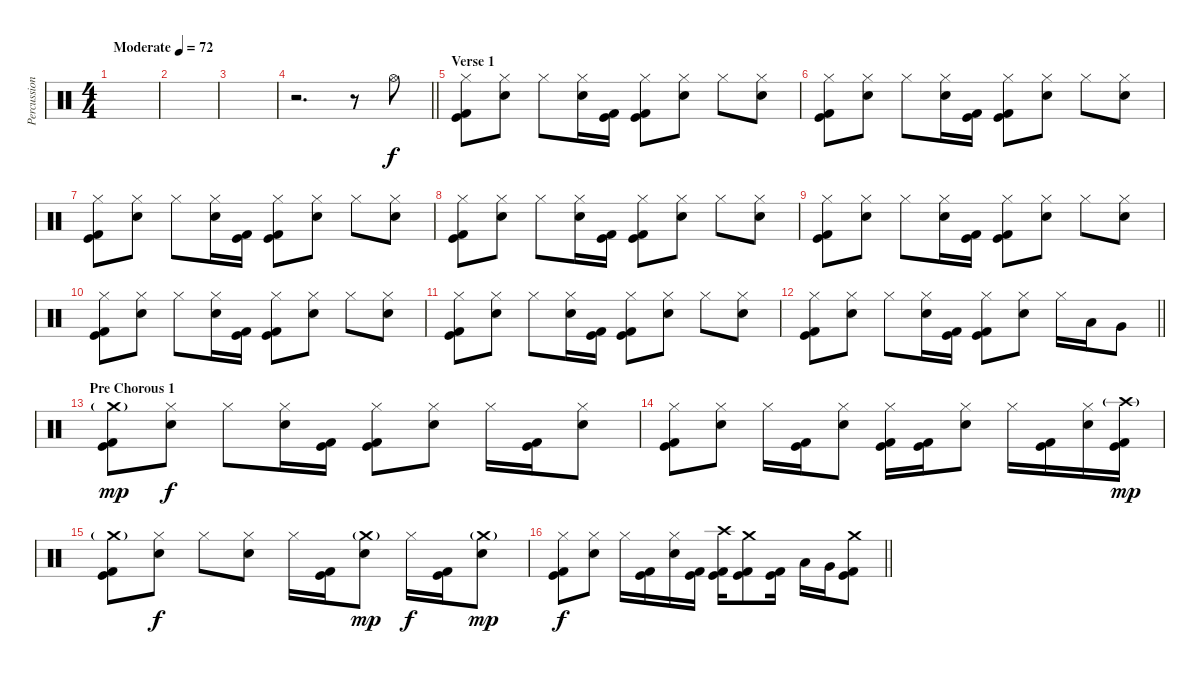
\track ("Percussion" "Percussion") {instrument percussion}
\staff {score}
\articulation defaults
\ts (4 4)
\tempo (72 "Moderate")
\clef neutral
\ks c
|
|
|
\barLineRight lightlight
r.2{d} r.8 "Hi-Hat (open)".8 |
\section ("" "Verse 1")
("Hi-Hat (closed)" "Kick (hit)" "Kick (hit) 2").8 ("Hi-Hat (closed)" "Electric Snare (hit)").8 "Hi-Hat (closed)".8 ("Hi-Hat (closed)" "Electric Snare (hit)").16 ("Kick (hit)" "Kick (hit) 2").16 ("Hi-Hat (closed)" "Kick (hit)" "Kick (hit) 2").8 ("Hi-Hat (closed)" "Electric Snare (hit)").8 "Hi-Hat (closed)".8 ("Hi-Hat (closed)" "Electric Snare (hit)").8 |
("Hi-Hat (closed)" "Kick (hit)" "Kick (hit) 2").8 ("Hi-Hat (closed)" "Electric Snare (hit)").8 "Hi-Hat (closed)".8 ("Hi-Hat (closed)" "Electric Snare (hit)").16 ("Kick (hit)" "Kick (hit) 2").16 ("Hi-Hat (closed)" "Kick (hit)" "Kick (hit) 2").8 ("Hi-Hat (closed)" "Electric Snare (hit)").8 "Hi-Hat (closed)".8 ("Hi-Hat (closed)" "Electric Snare (hit)").8 |
("Hi-Hat (closed)" "Kick (hit)" "Kick (hit) 2").8 ("Hi-Hat (closed)" "Electric Snare (hit)").8 "Hi-Hat (closed)".8 ("Hi-Hat (closed)" "Electric Snare (hit)").16 ("Kick (hit)" "Kick (hit) 2").16 ("Hi-Hat (closed)" "Kick (hit)" "Kick (hit) 2").8 ("Hi-Hat (closed)" "Electric Snare (hit)").8 "Hi-Hat (closed)".8 ("Hi-Hat (closed)" "Electric Snare (hit)").8 |
("Hi-Hat (closed)" "Kick (hit)" "Kick (hit) 2").8 ("Hi-Hat (closed)" "Electric Snare (hit)").8 "Hi-Hat (closed)".8 ("Hi-Hat (closed)" "Electric Snare (hit)").16 ("Kick (hit)" "Kick (hit) 2").16 ("Hi-Hat (closed)" "Kick (hit)" "Kick (hit) 2").8 ("Hi-Hat (closed)" "Electric Snare (hit)").8 "Hi-Hat (closed)".8 ("Hi-Hat (closed)" "Electric Snare (hit)").8 |
("Hi-Hat (closed)" "Kick (hit)" "Kick (hit) 2").8 ("Hi-Hat (closed)" "Electric Snare (hit)").8 "Hi-Hat (closed)".8 ("Hi-Hat (closed)" "Electric Snare (hit)").16 ("Kick (hit)" "Kick (hit) 2").16 ("Hi-Hat (closed)" "Kick (hit)" "Kick (hit) 2").8 ("Hi-Hat (closed)" "Electric Snare (hit)").8 "Hi-Hat (closed)".8 ("Hi-Hat (closed)" "Electric Snare (hit)").8 |
("Hi-Hat (closed)" "Kick (hit)" "Kick (hit) 2").8 ("Hi-Hat (closed)" "Electric Snare (hit)").8 "Hi-Hat (closed)".8 ("Hi-Hat (closed)" "Electric Snare (hit)").16 ("Kick (hit)" "Kick (hit) 2").16 ("Hi-Hat (closed)" "Kick (hit)" "Kick (hit) 2").8 ("Hi-Hat (closed)" "Electric Snare (hit)").8 "Hi-Hat (closed)".8 ("Hi-Hat (closed)" "Electric Snare (hit)").8 |
("Hi-Hat (closed)" "Kick (hit)" "Kick (hit) 2").8 ("Hi-Hat (closed)" "Electric Snare (hit)").8 "Hi-Hat (closed)".8 ("Hi-Hat (closed)" "Electric Snare (hit)").16 ("Kick (hit)" "Kick (hit) 2").16 ("Hi-Hat (closed)" "Kick (hit)" "Kick (hit) 2").8 ("Hi-Hat (closed)" "Electric Snare (hit)").8 "Hi-Hat (closed)".8 ("Hi-Hat (closed)" "Electric Snare (hit)").8 |
\barLineRight lightlight
("Hi-Hat (closed)" "Kick (hit)" "Kick (hit) 2").8 ("Hi-Hat (closed)" "Electric Snare (hit)").8 "Hi-Hat (closed)".8 ("Hi-Hat (closed)" "Electric Snare (hit)").16 ("Kick (hit)" "Kick (hit) 2").16 ("Hi-Hat (closed)" "Kick (hit)" "Kick (hit) 2").8 ("Hi-Hat (closed)" "Electric Snare (hit)").8 "Hi-Hat (closed)".16 "Low Tom (hit)".16 "Very Low Tom (hit)".8 |
\section ("" "Pre Chorous 1")
("Crash medium (hit)"{g} "Kick (hit)" "Kick (hit) 2").8{dy mp} ("Hi-Hat (closed)" "Electric Snare (hit)").8{dy f} "Hi-Hat (closed)".8 ("Hi-Hat (closed)" "Electric Snare (hit)").16 ("Kick (hit)" "Kick (hit) 2").16 ("Hi-Hat (closed)" "Kick (hit)" "Kick (hit) 2").8 ("Hi-Hat (closed)" "Electric Snare (hit)").8 "Hi-Hat (closed)".16 ("Kick (hit)" "Kick (hit) 2").16 ("Hi-Hat (closed)" "Electric Snare (hit)").8 |
("Hi-Hat (closed)" "Kick (hit)" "Kick (hit) 2").8 ("Hi-Hat (closed)" "Electric Snare (hit)").8 "Hi-Hat (closed)".16 ("Kick (hit)" "Kick (hit) 2").16 ("Hi-Hat (closed)" "Electric Snare (hit)").8 ("Hi-Hat (closed)" "Kick (hit)" "Kick (hit) 2").16 ("Kick (hit)" "Kick (hit) 2").16 ("Hi-Hat (closed)" "Electric Snare (hit)").8 "Hi-Hat (closed)".16 ("Kick (hit)" "Kick (hit) 2").16 ("Hi-Hat (closed)" "Electric Snare (hit)").16 ("Crash high (hit)"{g} "Kick (hit)" "Kick (hit) 2").16{dy mp} |
("Crash medium (hit)"{g} "Kick (hit)" "Kick (hit) 2").8 ("Hi-Hat (closed)" "Electric Snare (hit)").8{dy f} "Hi-Hat (closed)".8 ("Hi-Hat (closed)" "Electric Snare (hit)").8 "Hi-Hat (closed)".16 ("Kick (hit)" "Kick (hit) 2").16 ("Crash medium (hit)"{g} "Electric Snare (hit)").8{dy mp} "Hi-Hat (closed)".16{dy f} ("Kick (hit)" "Kick (hit) 2").16 ("Crash medium (hit)"{g} "Electric Snare (hit)").8{dy mp} |
\barLineRight lightlight
("Hi-Hat (closed)" "Kick (hit)" "Kick (hit) 2").8{dy f} ("Hi-Hat (closed)" "Electric Snare (hit)").8 "Hi-Hat (closed)".16 ("Kick (hit)" "Kick (hit) 2").16 ("Hi-Hat (closed)" "Electric Snare (hit)").16 ("Kick (hit)" "Kick (hit) 2").16 ("Crash high (hit)" "Kick (hit)" "Kick (hit) 2").16 ("Crash medium (hit)" "Kick (hit)" "Kick (hit) 2").8 ("Kick (hit)" "Kick (hit) 2").16 "Low Tom (hit)".16 "Very Low Tom (hit)".16 ("Crash medium (hit)" "Kick (hit)" "Kick (hit) 2").8
